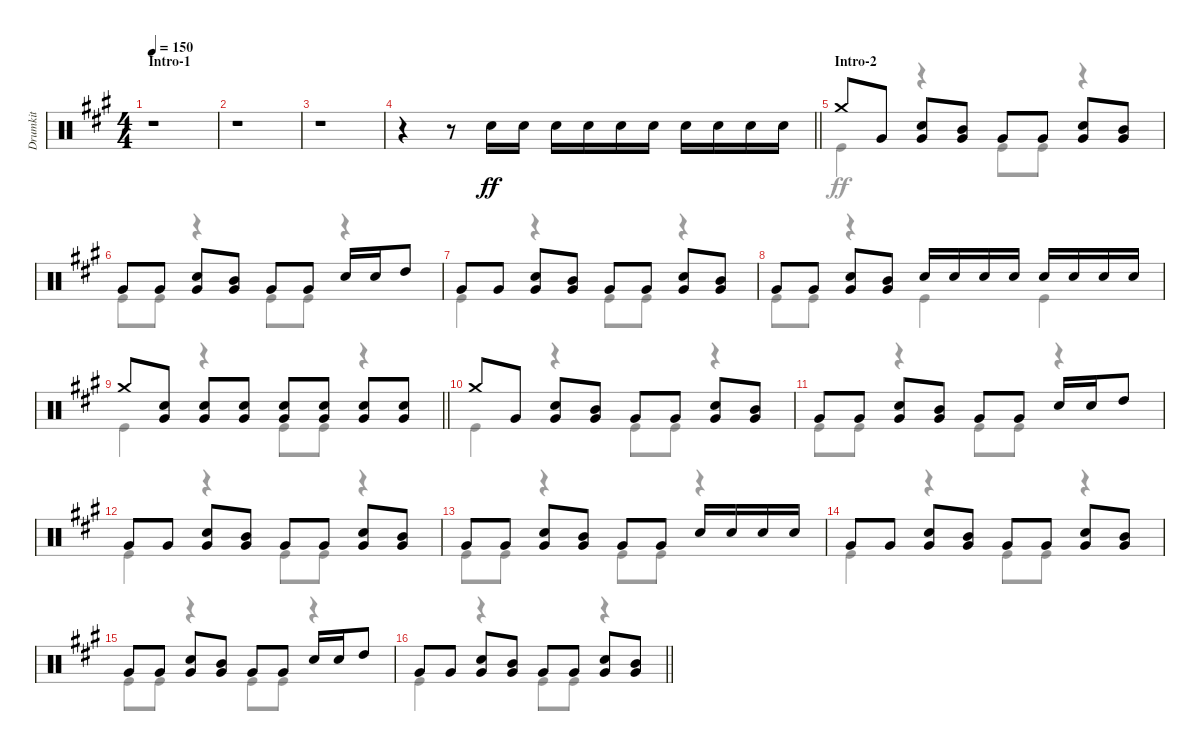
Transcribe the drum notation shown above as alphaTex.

\track ("Drumkit" "Drumkit") {instrument percussion}
\staff {score}
\articulation defaults
\voice
\ts (4 4)
\section ("" "Intro-1")
\tempo 150
\clef neutral
\ks a
r.1{dy ff} |
r.1 |
r.1 |
\barLineRight lightlight
r.4 r.8 "Snare (hit) 2".16 "Snare (hit) 2".16 "Snare (hit) 2".16 "Snare (hit) 2".16 "Snare (hit) 2".16 "Snare (hit) 2".16 "Snare (hit) 2".16 "Snare (hit) 2".16 "Snare (hit) 2".16 "Snare (hit) 2".16 |
\section ("" "Intro-2")
"Crash medium (hit)".8 "Very Low Tom (hit)".8 ("Very Low Tom (hit)" "Snare (hit) 2").8 ("Very Low Tom (hit)" "Mid Tom (hit)").8 "Very Low Tom (hit)".8 "Very Low Tom (hit)".8 ("Very Low Tom (hit)" "Snare (hit) 2").8 ("Very Low Tom (hit)" "Mid Tom (hit)").8 |
"Very Low Tom (hit)".8 "Very Low Tom (hit)".8 ("Very Low Tom (hit)" "Snare (hit) 2").8 ("Very Low Tom (hit)" "Mid Tom (hit)").8 "Very Low Tom (hit)".8 "Very Low Tom (hit)".8 "Snare (hit) 2".16 "Snare (hit) 2".16 "High Tom (hit)".8 |
"Very Low Tom (hit)".8 "Very Low Tom (hit)".8 ("Very Low Tom (hit)" "Snare (hit) 2").8 ("Very Low Tom (hit)" "Mid Tom (hit)").8 "Very Low Tom (hit)".8 "Very Low Tom (hit)".8 ("Very Low Tom (hit)" "Snare (hit) 2").8 ("Very Low Tom (hit)" "Mid Tom (hit)").8 |
"Very Low Tom (hit)".8 "Very Low Tom (hit)".8 ("Very Low Tom (hit)" "Snare (hit) 2").8 ("Very Low Tom (hit)" "Mid Tom (hit)").8 "Snare (hit) 2".16 "Snare (hit) 2".16 "Snare (hit) 2".16 "Snare (hit) 2".16 "Snare (hit) 2".16 "Snare (hit) 2".16 "Snare (hit) 2".16 "Snare (hit) 2".16 |
\barLineRight lightlight "Crash medium (hit)".8
("Snare (hit) 2" "Very Low Tom (hit)").8 ("Snare (hit) 2" "Very Low Tom (hit)").8 ("Snare (hit) 2" "Very Low Tom (hit)").8 ("Snare (hit) 2" "Very Low Tom (hit)").8 ("Snare (hit) 2" "Very Low Tom (hit)").8 ("Snare (hit) 2" "Very Low Tom (hit)").8 ("Snare (hit) 2" "Very Low Tom (hit)").8 |
\section ("" "")
"Crash medium (hit)".8 "Very Low Tom (hit)".8 ("Very Low Tom (hit)" "Snare (hit) 2").8 ("Very Low Tom (hit)" "Mid Tom (hit)").8 "Very Low Tom (hit)".8 "Very Low Tom (hit)".8 ("Very Low Tom (hit)" "Snare (hit) 2").8 ("Very Low Tom (hit)" "Mid Tom (hit)").8 |
"Very Low Tom (hit)".8 "Very Low Tom (hit)".8 ("Very Low Tom (hit)" "Snare (hit) 2").8 ("Very Low Tom (hit)" "Mid Tom (hit)").8 "Very Low Tom (hit)".8 "Very Low Tom (hit)".8 "Snare (hit) 2".16 "Snare (hit) 2".16 "High Tom (hit)".8 |
"Very Low Tom (hit)".8 "Very Low Tom (hit)".8 ("Very Low Tom (hit)" "Snare (hit) 2").8 ("Very Low Tom (hit)" "Mid Tom (hit)").8 "Very Low Tom (hit)".8 "Very Low Tom (hit)".8 ("Very Low Tom (hit)" "Snare (hit) 2").8 ("Very Low Tom (hit)" "Mid Tom (hit)").8 |
"Very Low Tom (hit)".8 "Very Low Tom (hit)".8 ("Very Low Tom (hit)" "Snare (hit) 2").8 ("Very Low Tom (hit)" "Mid Tom (hit)").8 "Very Low Tom (hit)".8 "Very Low Tom (hit)".8 "Snare (hit) 2".16 "Snare (hit) 2".16 "Snare (hit) 2".16 "Snare (hit) 2".16 |
"Very Low Tom (hit)".8 "Very Low Tom (hit)".8 ("Very Low Tom (hit)" "Snare (hit) 2").8 ("Very Low Tom (hit)" "Mid Tom (hit)").8 "Very Low Tom (hit)".8 "Very Low Tom (hit)".8 ("Very Low Tom (hit)" "Snare (hit) 2").8 ("Very Low Tom (hit)" "Mid Tom (hit)").8 |
"Very Low Tom (hit)".8 "Very Low Tom (hit)".8 ("Very Low Tom (hit)" "Snare (hit) 2").8 ("Very Low Tom (hit)" "Mid Tom (hit)").8 "Very Low Tom (hit)".8 "Very Low Tom (hit)".8 "Snare (hit) 2".16 "Snare (hit) 2".16 "High Tom (hit)".8 |
\barLineRight lightlight "Very Low Tom (hit)".8 "Very Low Tom (hit)".8
("Very Low Tom (hit)" "Snare (hit) 2").8 ("Very Low Tom (hit)" "Mid Tom (hit)").8 "Very Low Tom (hit)".8 "Very Low Tom (hit)".8 ("Very Low Tom (hit)" "Snare (hit) 2").8 ("Very Low Tom (hit)" "Mid Tom (hit)").8
\voice
\clef neutral
\ottava regular
\simile none
\ks a
|
|
|
\barLineRight lightlight
|
"Kick (hit)".4 r.4 "Kick (hit)".8 "Kick (hit)".8 r.4 |
"Kick (hit)".8 "Kick (hit)".8 r.4 "Kick (hit)".8 "Kick (hit)".8 r.4 |
"Kick (hit)".4 r.4 "Kick (hit)".8 "Kick (hit)".8 r.4 |
"Kick (hit)".8 "Kick (hit)".8 r.4 "Kick (hit)".4 "Kick (hit)".4 |
\barLineRight lightlight "Kick (hit)".4
r.4 "Kick (hit)".8 "Kick (hit)".8 r.4 |
"Kick (hit)".4 r.4 "Kick (hit)".8 "Kick (hit)".8 r.4 |
"Kick (hit)".8 "Kick (hit)".8 r.4 "Kick (hit)".8 "Kick (hit)".8 r.4 |
"Kick (hit)".4 r.4 "Kick (hit)".8 "Kick (hit)".8 r.4 |
"Kick (hit)".8 "Kick (hit)".8 r.4 "Kick (hit)".8 "Kick (hit)".8 r.4 |
"Kick (hit)".4 r.4 "Kick (hit)".8 "Kick (hit)".8 r.4 |
"Kick (hit)".8 "Kick (hit)".8 r.4 "Kick (hit)".8 "Kick (hit)".8 r.4 |
\barLineRight lightlight "Kick (hit)".4
r.4 "Kick (hit)".8 "Kick (hit)".8 r.4
